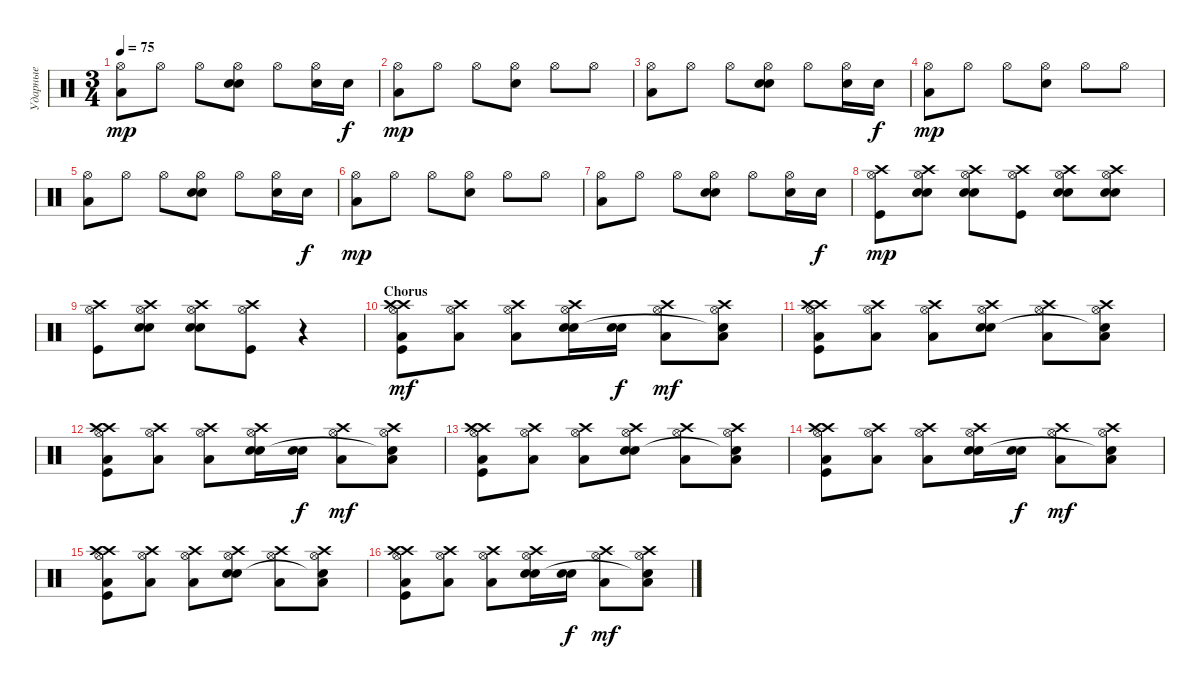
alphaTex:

\track ("Ударные" "Ударные") {instrument percussion}
\staff {score}
\articulation defaults
\ts (3 4)
\tempo 75
\clef neutral
\ks c
("Hi-Hat (open)" "Low Floor Tom (hit)").8{dy mp} "Hi-Hat (open)".8 "Hi-Hat (open)".8 ("Hi-Hat (open)" "Electric Snare (hit)" "Snare (hit) 2").8 "Hi-Hat (open)".8 ("Hi-Hat (open)" "Electric Snare (hit)").16 "Electric Snare (hit)".16{dy f} |
("Hi-Hat (open)" "Low Floor Tom (hit)").8{dy mp} "Hi-Hat (open)".8 "Hi-Hat (open)".8 ("Hi-Hat (open)" "Snare (hit) 2").8 "Hi-Hat (open)".8 "Hi-Hat (open)".8 |
("Hi-Hat (open)" "Low Floor Tom (hit)").8 "Hi-Hat (open)".8 "Hi-Hat (open)".8 ("Hi-Hat (open)" "Electric Snare (hit)" "Snare (hit) 2").8 "Hi-Hat (open)".8 ("Hi-Hat (open)" "Electric Snare (hit)").16 "Electric Snare (hit)".16{dy f} |
("Hi-Hat (open)" "Low Floor Tom (hit)").8{dy mp} "Hi-Hat (open)".8 "Hi-Hat (open)".8 ("Hi-Hat (open)" "Snare (hit) 2").8 "Hi-Hat (open)".8 "Hi-Hat (open)".8 |
("Hi-Hat (open)" "Low Floor Tom (hit)").8 "Hi-Hat (open)".8 "Hi-Hat (open)".8 ("Hi-Hat (open)" "Electric Snare (hit)" "Snare (hit) 2").8 "Hi-Hat (open)".8 ("Hi-Hat (open)" "Electric Snare (hit)").16 "Electric Snare (hit)".16{dy f} |
("Hi-Hat (open)" "Low Floor Tom (hit)").8{dy mp} "Hi-Hat (open)".8 "Hi-Hat (open)".8 ("Hi-Hat (open)" "Snare (hit) 2").8 "Hi-Hat (open)".8 "Hi-Hat (open)".8 |
("Hi-Hat (open)" "Low Floor Tom (hit)").8 "Hi-Hat (open)".8 "Hi-Hat (open)".8 ("Hi-Hat (open)" "Electric Snare (hit)" "Snare (hit) 2").8 "Hi-Hat (open)".8 ("Hi-Hat (open)" "Electric Snare (hit)").16 "Electric Snare (hit)".16{dy f} |
("Hi-Hat (open)" "Crash high (hit)" "Kick (hit)").8{dy mp} ("Hi-Hat (open)" "Crash high (hit)" "Electric Snare (hit)" "Electric Snare (hit)").8 ("Hi-Hat (open)" "Crash high (hit)" "Electric Snare (hit)" "Electric Snare (hit)").8 ("Hi-Hat (open)" "Crash high (hit)" "Kick (hit)").8 ("Hi-Hat (open)" "Crash high (hit)" "Electric Snare (hit)" "Electric Snare (hit)").8 ("Hi-Hat (open)" "Crash high (hit)" "Electric Snare (hit)" "Electric Snare (hit)").8 |
("Hi-Hat (open)" "Crash high (hit)" "Kick (hit)").8 ("Hi-Hat (open)" "Crash high (hit)" "Electric Snare (hit)" "Electric Snare (hit)").8 ("Hi-Hat (open)" "Crash high (hit)" "Electric Snare (hit)" "Electric Snare (hit)").8 ("Hi-Hat (open)" "Crash high (hit)" "Kick (hit)").8 r.4 |
\section ("" "Chorus")
("Hi-Hat (open)" "Crash high (hit)" "Low Floor Tom (hit)" "Kick (hit)" "Crash high (hit)").8{dy mf} ("Hi-Hat (open)" "Crash high (hit)" "Low Floor Tom (hit)").8 ("Hi-Hat (open)" "Crash high (hit)" "Low Floor Tom (hit)").8 ("Hi-Hat (open)" "Crash high (hit)" "Electric Snare (hit)" "Electric Snare (hit)").16 ("Electric Snare (hit)" "Electric Snare (hit)").16{dy f} ("Hi-Hat (open)" "Crash high (hit)" "Low Floor Tom (hit)").8{dy mf} ("Hi-Hat (open)" "Crash high (hit)" "Low Floor Tom (hit)" "Snare (hit)"{t}).8 |
("Hi-Hat (open)" "Crash high (hit)" "Low Floor Tom (hit)" "Kick (hit)" "Crash high (hit)").8 ("Hi-Hat (open)" "Crash high (hit)" "Low Floor Tom (hit)").8 ("Hi-Hat (open)" "Crash high (hit)" "Low Floor Tom (hit)").8 ("Hi-Hat (open)" "Crash high (hit)" "Electric Snare (hit)" "Electric Snare (hit)").8 ("Hi-Hat (open)" "Crash high (hit)" "Low Floor Tom (hit)").8 ("Hi-Hat (open)" "Crash high (hit)" "Low Floor Tom (hit)" "Snare (hit)"{t}).8 |
("Hi-Hat (open)" "Crash high (hit)" "Low Floor Tom (hit)" "Kick (hit)" "Crash high (hit)").8 ("Hi-Hat (open)" "Crash high (hit)" "Low Floor Tom (hit)").8 ("Hi-Hat (open)" "Crash high (hit)" "Low Floor Tom (hit)").8 ("Hi-Hat (open)" "Crash high (hit)" "Electric Snare (hit)" "Electric Snare (hit)").16 ("Electric Snare (hit)" "Electric Snare (hit)").16{dy f} ("Hi-Hat (open)" "Crash high (hit)" "Low Floor Tom (hit)").8{dy mf} ("Hi-Hat (open)" "Crash high (hit)" "Low Floor Tom (hit)" "Snare (hit)"{t}).8 |
("Hi-Hat (open)" "Crash high (hit)" "Low Floor Tom (hit)" "Kick (hit)" "Crash high (hit)").8 ("Hi-Hat (open)" "Crash high (hit)" "Low Floor Tom (hit)").8 ("Hi-Hat (open)" "Crash high (hit)" "Low Floor Tom (hit)").8 ("Hi-Hat (open)" "Crash high (hit)" "Electric Snare (hit)" "Electric Snare (hit)").8 ("Hi-Hat (open)" "Crash high (hit)" "Low Floor Tom (hit)").8 ("Hi-Hat (open)" "Crash high (hit)" "Low Floor Tom (hit)" "Snare (hit)"{t}).8 |
("Hi-Hat (open)" "Crash high (hit)" "Low Floor Tom (hit)" "Kick (hit)" "Crash high (hit)").8 ("Hi-Hat (open)" "Crash high (hit)" "Low Floor Tom (hit)").8 ("Hi-Hat (open)" "Crash high (hit)" "Low Floor Tom (hit)").8 ("Hi-Hat (open)" "Crash high (hit)" "Electric Snare (hit)" "Electric Snare (hit)").16 ("Electric Snare (hit)" "Electric Snare (hit)").16{dy f} ("Hi-Hat (open)" "Crash high (hit)" "Low Floor Tom (hit)").8{dy mf} ("Hi-Hat (open)" "Crash high (hit)" "Low Floor Tom (hit)" "Snare (hit)"{t}).8 |
("Hi-Hat (open)" "Crash high (hit)" "Low Floor Tom (hit)" "Kick (hit)" "Crash high (hit)").8 ("Hi-Hat (open)" "Crash high (hit)" "Low Floor Tom (hit)").8 ("Hi-Hat (open)" "Crash high (hit)" "Low Floor Tom (hit)").8 ("Hi-Hat (open)" "Crash high (hit)" "Electric Snare (hit)" "Electric Snare (hit)").8 ("Hi-Hat (open)" "Crash high (hit)" "Low Floor Tom (hit)").8 ("Hi-Hat (open)" "Crash high (hit)" "Low Floor Tom (hit)" "Snare (hit)"{t}).8 |
("Hi-Hat (open)" "Crash high (hit)" "Low Floor Tom (hit)" "Kick (hit)" "Crash high (hit)").8 ("Hi-Hat (open)" "Crash high (hit)" "Low Floor Tom (hit)").8 ("Hi-Hat (open)" "Crash high (hit)" "Low Floor Tom (hit)").8 ("Hi-Hat (open)" "Crash high (hit)" "Electric Snare (hit)" "Electric Snare (hit)").16 ("Electric Snare (hit)" "Electric Snare (hit)").16{dy f} ("Hi-Hat (open)" "Crash high (hit)" "Low Floor Tom (hit)").8{dy mf} ("Hi-Hat (open)" "Crash high (hit)" "Low Floor Tom (hit)" "Snare (hit)"{t}).8
